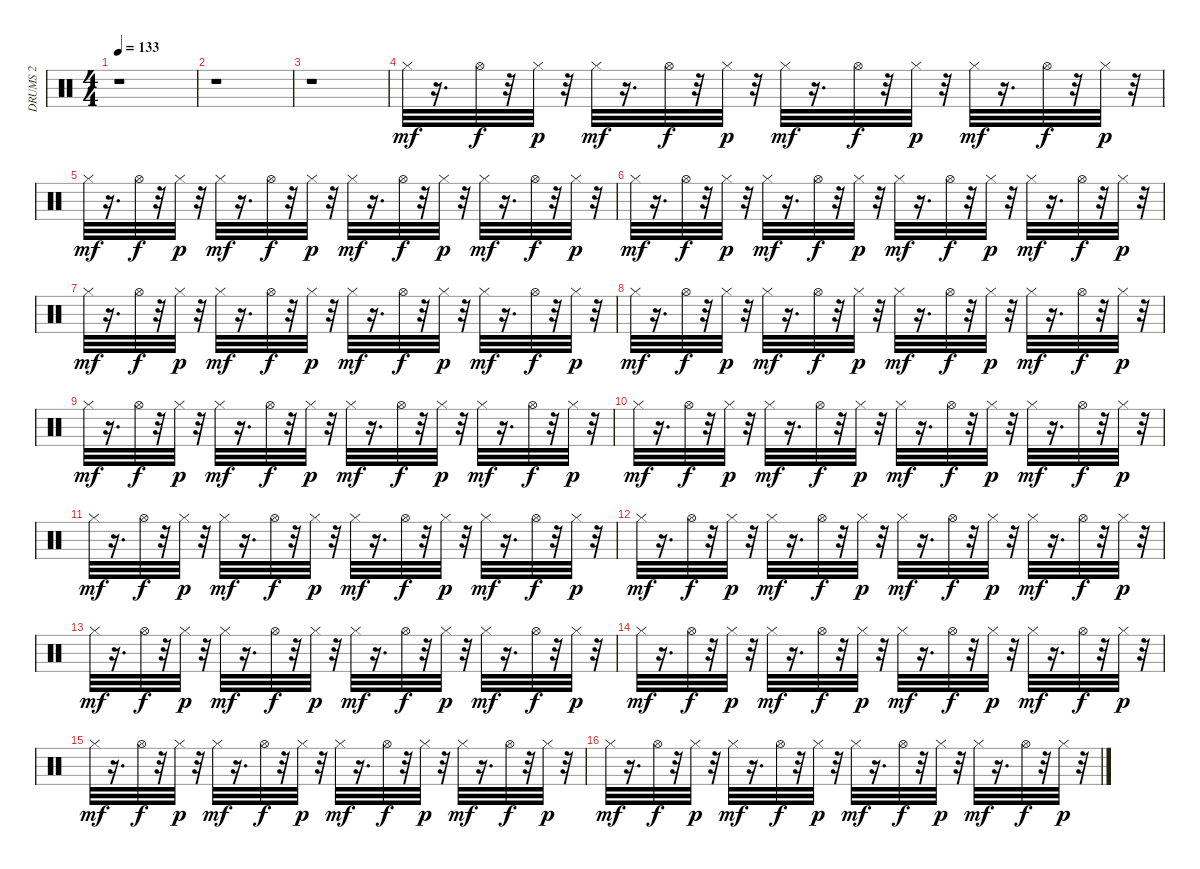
\track ("DRUMS 2                             " "DRUMS 2   ") {instrument percussion}
\staff {score}
\articulation defaults
\ts (4 4)
\tempo 133
\clef neutral
\ks c
r.1{dy p} |
r.1 |
r.1 |
"Hi-Hat (closed)".32{dy mf} r.16{d} "Hi-Hat (open)".32{dy f} r.32 "Hi-Hat (closed)".32{dy p} r.32 "Hi-Hat (closed)".32{dy mf} r.16{d} "Hi-Hat (open)".32{dy f} r.32 "Hi-Hat (closed)".32{dy p} r.32 "Hi-Hat (closed)".32{dy mf} r.16{d} "Hi-Hat (open)".32{dy f} r.32 "Hi-Hat (closed)".32{dy p} r.32 "Hi-Hat (closed)".32{dy mf} r.16{d} "Hi-Hat (open)".32{dy f} r.32 "Hi-Hat (closed)".32{dy p} r.32 |
"Hi-Hat (closed)".32{dy mf} r.16{d} "Hi-Hat (open)".32{dy f} r.32 "Hi-Hat (closed)".32{dy p} r.32 "Hi-Hat (closed)".32{dy mf} r.16{d} "Hi-Hat (open)".32{dy f} r.32 "Hi-Hat (closed)".32{dy p} r.32 "Hi-Hat (closed)".32{dy mf} r.16{d} "Hi-Hat (open)".32{dy f} r.32 "Hi-Hat (closed)".32{dy p} r.32 "Hi-Hat (closed)".32{dy mf} r.16{d} "Hi-Hat (open)".32{dy f} r.32 "Hi-Hat (closed)".32{dy p} r.32 |
"Hi-Hat (closed)".32{dy mf} r.16{d} "Hi-Hat (open)".32{dy f} r.32 "Hi-Hat (closed)".32{dy p} r.32 "Hi-Hat (closed)".32{dy mf} r.16{d} "Hi-Hat (open)".32{dy f} r.32 "Hi-Hat (closed)".32{dy p} r.32 "Hi-Hat (closed)".32{dy mf} r.16{d} "Hi-Hat (open)".32{dy f} r.32 "Hi-Hat (closed)".32{dy p} r.32 "Hi-Hat (closed)".32{dy mf} r.16{d} "Hi-Hat (open)".32{dy f} r.32 "Hi-Hat (closed)".32{dy p} r.32 |
"Hi-Hat (closed)".32{dy mf} r.16{d} "Hi-Hat (open)".32{dy f} r.32 "Hi-Hat (closed)".32{dy p} r.32 "Hi-Hat (closed)".32{dy mf} r.16{d} "Hi-Hat (open)".32{dy f} r.32 "Hi-Hat (closed)".32{dy p} r.32 "Hi-Hat (closed)".32{dy mf} r.16{d} "Hi-Hat (open)".32{dy f} r.32 "Hi-Hat (closed)".32{dy p} r.32 "Hi-Hat (closed)".32{dy mf} r.16{d} "Hi-Hat (open)".32{dy f} r.32 "Hi-Hat (closed)".32{dy p} r.32 |
"Hi-Hat (closed)".32{dy mf} r.16{d} "Hi-Hat (open)".32{dy f} r.32 "Hi-Hat (closed)".32{dy p} r.32 "Hi-Hat (closed)".32{dy mf} r.16{d} "Hi-Hat (open)".32{dy f} r.32 "Hi-Hat (closed)".32{dy p} r.32 "Hi-Hat (closed)".32{dy mf} r.16{d} "Hi-Hat (open)".32{dy f} r.32 "Hi-Hat (closed)".32{dy p} r.32 "Hi-Hat (closed)".32{dy mf} r.16{d} "Hi-Hat (open)".32{dy f} r.32 "Hi-Hat (closed)".32{dy p} r.32 |
"Hi-Hat (closed)".32{dy mf} r.16{d} "Hi-Hat (open)".32{dy f} r.32 "Hi-Hat (closed)".32{dy p} r.32 "Hi-Hat (closed)".32{dy mf} r.16{d} "Hi-Hat (open)".32{dy f} r.32 "Hi-Hat (closed)".32{dy p} r.32 "Hi-Hat (closed)".32{dy mf} r.16{d} "Hi-Hat (open)".32{dy f} r.32 "Hi-Hat (closed)".32{dy p} r.32 "Hi-Hat (closed)".32{dy mf} r.16{d} "Hi-Hat (open)".32{dy f} r.32 "Hi-Hat (closed)".32{dy p} r.32 |
"Hi-Hat (closed)".32{dy mf} r.16{d} "Hi-Hat (open)".32{dy f} r.32 "Hi-Hat (closed)".32{dy p} r.32 "Hi-Hat (closed)".32{dy mf} r.16{d} "Hi-Hat (open)".32{dy f} r.32 "Hi-Hat (closed)".32{dy p} r.32 "Hi-Hat (closed)".32{dy mf} r.16{d} "Hi-Hat (open)".32{dy f} r.32 "Hi-Hat (closed)".32{dy p} r.32 "Hi-Hat (closed)".32{dy mf} r.16{d} "Hi-Hat (open)".32{dy f} r.32 "Hi-Hat (closed)".32{dy p} r.32 |
"Hi-Hat (closed)".32{dy mf} r.16{d} "Hi-Hat (open)".32{dy f} r.32 "Hi-Hat (closed)".32{dy p} r.32 "Hi-Hat (closed)".32{dy mf} r.16{d} "Hi-Hat (open)".32{dy f} r.32 "Hi-Hat (closed)".32{dy p} r.32 "Hi-Hat (closed)".32{dy mf} r.16{d} "Hi-Hat (open)".32{dy f} r.32 "Hi-Hat (closed)".32{dy p} r.32 "Hi-Hat (closed)".32{dy mf} r.16{d} "Hi-Hat (open)".32{dy f} r.32 "Hi-Hat (closed)".32{dy p} r.32 |
"Hi-Hat (closed)".32{dy mf} r.16{d} "Hi-Hat (open)".32{dy f} r.32 "Hi-Hat (closed)".32{dy p} r.32 "Hi-Hat (closed)".32{dy mf} r.16{d} "Hi-Hat (open)".32{dy f} r.32 "Hi-Hat (closed)".32{dy p} r.32 "Hi-Hat (closed)".32{dy mf} r.16{d} "Hi-Hat (open)".32{dy f} r.32 "Hi-Hat (closed)".32{dy p} r.32 "Hi-Hat (closed)".32{dy mf} r.16{d} "Hi-Hat (open)".32{dy f} r.32 "Hi-Hat (closed)".32{dy p} r.32 |
"Hi-Hat (closed)".32{dy mf} r.16{d} "Hi-Hat (open)".32{dy f} r.32 "Hi-Hat (closed)".32{dy p} r.32 "Hi-Hat (closed)".32{dy mf} r.16{d} "Hi-Hat (open)".32{dy f} r.32 "Hi-Hat (closed)".32{dy p} r.32 "Hi-Hat (closed)".32{dy mf} r.16{d} "Hi-Hat (open)".32{dy f} r.32 "Hi-Hat (closed)".32{dy p} r.32 "Hi-Hat (closed)".32{dy mf} r.16{d} "Hi-Hat (open)".32{dy f} r.32 "Hi-Hat (closed)".32{dy p} r.32 |
"Hi-Hat (closed)".32{dy mf} r.16{d} "Hi-Hat (open)".32{dy f} r.32 "Hi-Hat (closed)".32{dy p} r.32 "Hi-Hat (closed)".32{dy mf} r.16{d} "Hi-Hat (open)".32{dy f} r.32 "Hi-Hat (closed)".32{dy p} r.32 "Hi-Hat (closed)".32{dy mf} r.16{d} "Hi-Hat (open)".32{dy f} r.32 "Hi-Hat (closed)".32{dy p} r.32 "Hi-Hat (closed)".32{dy mf} r.16{d} "Hi-Hat (open)".32{dy f} r.32 "Hi-Hat (closed)".32{dy p} r.32 |
"Hi-Hat (closed)".32{dy mf} r.16{d} "Hi-Hat (open)".32{dy f} r.32 "Hi-Hat (closed)".32{dy p} r.32 "Hi-Hat (closed)".32{dy mf} r.16{d} "Hi-Hat (open)".32{dy f} r.32 "Hi-Hat (closed)".32{dy p} r.32 "Hi-Hat (closed)".32{dy mf} r.16{d} "Hi-Hat (open)".32{dy f} r.32 "Hi-Hat (closed)".32{dy p} r.32 "Hi-Hat (closed)".32{dy mf} r.16{d} "Hi-Hat (open)".32{dy f} r.32 "Hi-Hat (closed)".32{dy p} r.32 |
"Hi-Hat (closed)".32{dy mf} r.16{d} "Hi-Hat (open)".32{dy f} r.32 "Hi-Hat (closed)".32{dy p} r.32 "Hi-Hat (closed)".32{dy mf} r.16{d} "Hi-Hat (open)".32{dy f} r.32 "Hi-Hat (closed)".32{dy p} r.32 "Hi-Hat (closed)".32{dy mf} r.16{d} "Hi-Hat (open)".32{dy f} r.32 "Hi-Hat (closed)".32{dy p} r.32 "Hi-Hat (closed)".32{dy mf} r.16{d} "Hi-Hat (open)".32{dy f} r.32 "Hi-Hat (closed)".32{dy p} r.32
